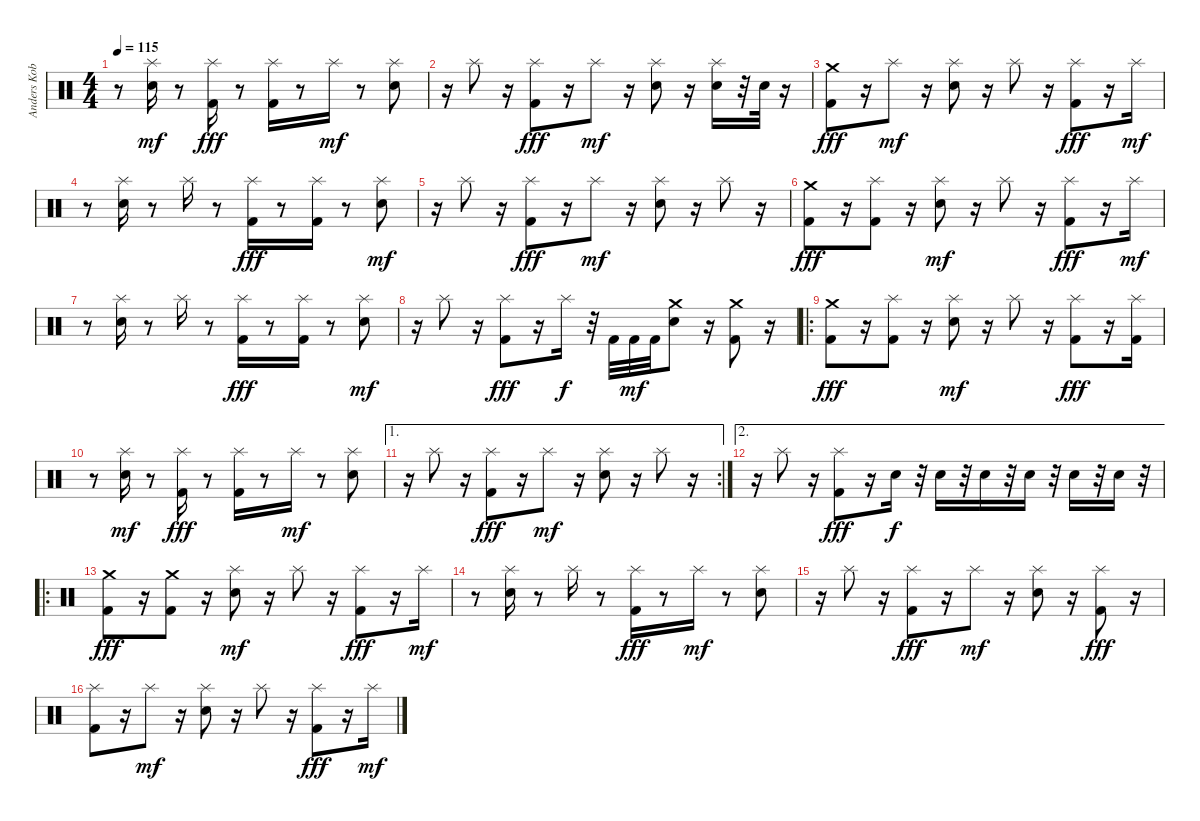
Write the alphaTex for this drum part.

\track ("Anders Kobro " "Anders Kob") {instrument percussion}
\staff {score}
\articulation defaults
\ts (4 4)
\tempo 115
\clef neutral
\ks c
r.8{dy fff} ("Splash (hit)" "Snare (hit) 2").16{dy mf} r.8 ("Splash (hit)" "Kick (hit) 2").16{dy fff} r.8 ("Splash (hit)" "Kick (hit) 2").16 r.8 "Splash (hit)".16{dy mf} r.8 ("Splash (hit)" "Snare (hit) 2").8 |
r.16 "Splash (hit)".8 r.16 ("Splash (hit)" "Kick (hit) 2").8{dy fff} r.16 "Splash (hit)".8{dy mf} r.16 ("Splash (hit)" "Snare (hit) 2").8 r.16 ("Splash (hit)" "Snare (hit) 2").16 r.32 "Snare (hit) 2".32 r.16 |
("Crash medium (hit)" "Kick (hit) 2").8{dy fff} r.16 "Splash (hit)".8{dy mf} r.16 ("Splash (hit)" "Snare (hit) 2").8 r.16 "Splash (hit)".8 r.16 ("Splash (hit)" "Kick (hit) 2").8{dy fff} r.16 "Splash (hit)".16{dy mf} |
r.8 ("Splash (hit)" "Snare (hit) 2").16 r.8 "Splash (hit)".16 r.8 ("Splash (hit)" "Kick (hit) 2").16{dy fff} r.8 ("Splash (hit)" "Kick (hit) 2").16 r.8 ("Splash (hit)" "Snare (hit) 2").8{dy mf} |
r.16 "Splash (hit)".8 r.16 ("Splash (hit)" "Kick (hit) 2").8{dy fff} r.16 "Splash (hit)".8{dy mf} r.16 ("Splash (hit)" "Snare (hit) 2").8 r.16 "Splash (hit)".8 r.16 |
("Crash medium (hit)" "Kick (hit) 2").8{dy fff} r.16 ("Splash (hit)" "Kick (hit) 2").8 r.16 ("Splash (hit)" "Snare (hit) 2").8{dy mf} r.16 "Splash (hit)".8 r.16 ("Splash (hit)" "Kick (hit) 2").8{dy fff} r.16 "Splash (hit)".16{dy mf} |
r.8 ("Splash (hit)" "Snare (hit) 2").16 r.8 "Splash (hit)".16 r.8 ("Splash (hit)" "Kick (hit) 2").16{dy fff} r.8 ("Splash (hit)" "Kick (hit) 2").16 r.8 ("Splash (hit)" "Snare (hit) 2").8{dy mf} |
r.16 "Splash (hit)".8 r.16 ("Splash (hit)" "Kick (hit) 2").8{dy fff} r.16 "Splash (hit)".16{dy f} r.32 "Kick (hit) 2".32 "Kick (hit) 2".32{dy mf} "Kick (hit) 2".32 ("Crash medium (hit)" "Snare (hit) 2").8 r.16 ("Crash medium (hit)" "Kick (hit) 2").8 r.16 |
\ro
("Crash medium (hit)" "Kick (hit) 2").8{dy fff} r.16 ("Splash (hit)" "Kick (hit) 2").8 r.16 ("Splash (hit)" "Snare (hit) 2").8{dy mf} r.16 "Splash (hit)".8 r.16 ("Splash (hit)" "Kick (hit) 2").8{dy fff} r.16 ("Splash (hit)" "Kick (hit) 2").16 |
r.8 ("Splash (hit)" "Snare (hit) 2").16{dy mf} r.8 ("Splash (hit)" "Kick (hit) 2").16{dy fff} r.8 ("Splash (hit)" "Kick (hit) 2").16 r.8 "Splash (hit)".16{dy mf} r.8 ("Splash (hit)" "Snare (hit) 2").8 |
\ae 1
\rc 2
r.16 "Splash (hit)".8 r.16 ("Splash (hit)" "Kick (hit) 2").8{dy fff} r.16 "Splash (hit)".8{dy mf} r.16 ("Splash (hit)" "Snare (hit) 2").8 r.16 "Splash (hit)".8 r.16 |
\ae 2
r.16 "Splash (hit)".8 r.16 ("Splash (hit)" "Kick (hit) 2").8{dy fff} r.16 "Snare (hit) 2".16{dy f} r.32 "Snare (hit) 2".16 r.32 "Snare (hit) 2".16 r.32 "Snare (hit) 2".16 r.32 "Snare (hit) 2".16 r.32 "Snare (hit) 2".16 r.32 |
\ro
("Crash medium (hit)" "Kick (hit) 2").8{dy fff} r.16 ("Crash medium (hit)" "Kick (hit) 2").8 r.16 ("Splash (hit)" "Snare (hit) 2").8{dy mf} r.16 "Splash (hit)".8 r.16 ("Splash (hit)" "Kick (hit) 2").8{dy fff} r.16 "Splash (hit)".16{dy mf} |
r.8 ("Splash (hit)" "Snare (hit) 2").16 r.8 "Splash (hit)".16 r.8 ("Splash (hit)" "Kick (hit) 2").16{dy fff} r.8 "Splash (hit)".16{dy mf} r.8 ("Splash (hit)" "Snare (hit) 2").8 |
r.16 "Splash (hit)".8 r.16 ("Splash (hit)" "Kick (hit) 2").8{dy fff} r.16 "Splash (hit)".8{dy mf} r.16 ("Splash (hit)" "Snare (hit) 2").8 r.16 ("Splash (hit)" "Kick (hit) 2").8{dy fff} r.16 |
("Splash (hit)" "Kick (hit) 2").8 r.16 "Splash (hit)".8{dy mf} r.16 ("Splash (hit)" "Snare (hit) 2").8 r.16 "Splash (hit)".8 r.16 ("Splash (hit)" "Kick (hit) 2").8{dy fff} r.16 "Splash (hit)".16{dy mf}
